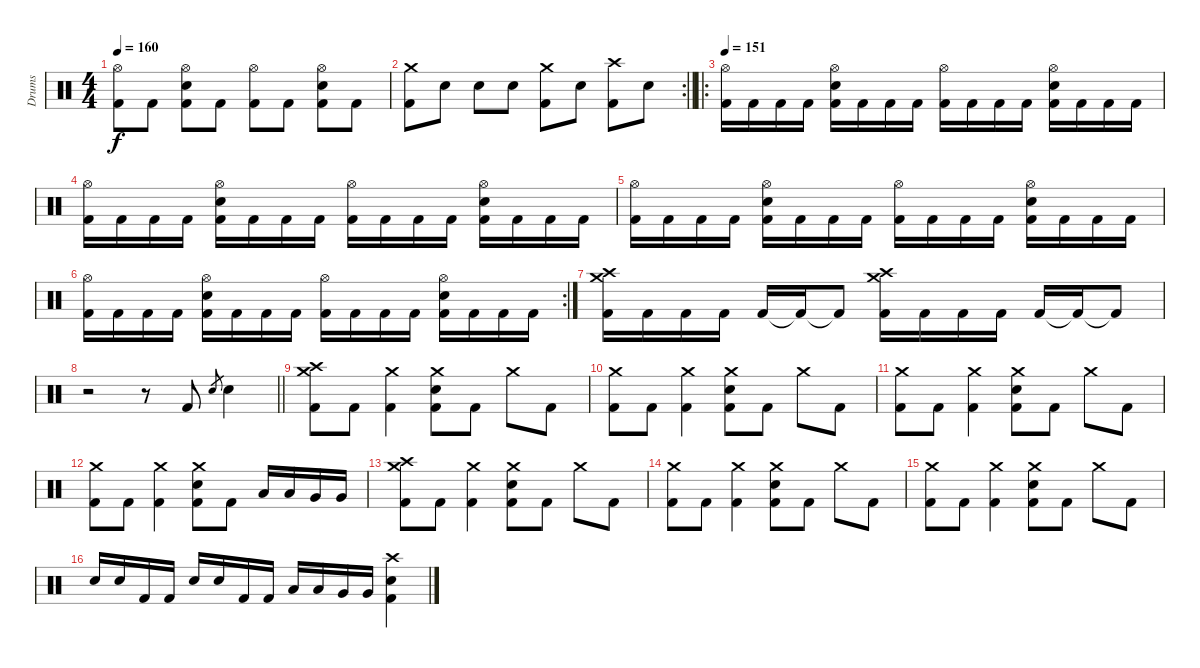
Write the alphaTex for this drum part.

\track ("Drums" "Drums") {instrument percussion}
\staff {score}
\articulation defaults
\ts (4 4)
\tempo 160
\clef neutral
\ks c
("Hi-Hat (open)" "Kick (hit) 2").8{dy f} "Kick (hit) 2".8 ("Hi-Hat (open)" "Electric Snare (hit)" "Kick (hit) 2").8 "Kick (hit) 2".8 ("Hi-Hat (open)" "Kick (hit) 2").8 "Kick (hit) 2".8 ("Hi-Hat (open)" "Electric Snare (hit)" "Kick (hit) 2").8 "Kick (hit) 2".8 |
\rc 2
\barLineRight lightlight
("Crash medium (hit)" "Kick (hit) 2").8 "Electric Snare (hit)".8 "Electric Snare (hit)".8 "Electric Snare (hit)".8 ("Crash medium (hit)" "Kick (hit) 2").8 "Electric Snare (hit)".8 ("Crash high (hit)" "Kick (hit) 2").8 "Electric Snare (hit)".8 |
\ro
\tempo 151
("Hi-Hat (open)" "Kick (hit) 2").16 "Kick (hit) 2".16 "Kick (hit) 2".16 "Kick (hit) 2".16 ("Hi-Hat (open)" "Electric Snare (hit)" "Kick (hit) 2").16 "Kick (hit) 2".16 "Kick (hit) 2".16 "Kick (hit) 2".16 ("Hi-Hat (open)" "Kick (hit) 2").16 "Kick (hit) 2".16 "Kick (hit) 2".16 "Kick (hit) 2".16 ("Hi-Hat (open)" "Electric Snare (hit)" "Kick (hit) 2").16 "Kick (hit) 2".16 "Kick (hit) 2".16 "Kick (hit) 2".16 |
("Hi-Hat (open)" "Kick (hit) 2").16 "Kick (hit) 2".16 "Kick (hit) 2".16 "Kick (hit) 2".16 ("Hi-Hat (open)" "Electric Snare (hit)" "Kick (hit) 2").16 "Kick (hit) 2".16 "Kick (hit) 2".16 "Kick (hit) 2".16 ("Hi-Hat (open)" "Kick (hit) 2").16 "Kick (hit) 2".16 "Kick (hit) 2".16 "Kick (hit) 2".16 ("Hi-Hat (open)" "Electric Snare (hit)" "Kick (hit) 2").16 "Kick (hit) 2".16 "Kick (hit) 2".16 "Kick (hit) 2".16 |
("Hi-Hat (open)" "Kick (hit) 2").16 "Kick (hit) 2".16 "Kick (hit) 2".16 "Kick (hit) 2".16 ("Hi-Hat (open)" "Electric Snare (hit)" "Kick (hit) 2").16 "Kick (hit) 2".16 "Kick (hit) 2".16 "Kick (hit) 2".16 ("Hi-Hat (open)" "Kick (hit) 2").16 "Kick (hit) 2".16 "Kick (hit) 2".16 "Kick (hit) 2".16 ("Hi-Hat (open)" "Electric Snare (hit)" "Kick (hit) 2").16 "Kick (hit) 2".16 "Kick (hit) 2".16 "Kick (hit) 2".16 |
\rc 2
("Hi-Hat (open)" "Kick (hit) 2").16 "Kick (hit) 2".16 "Kick (hit) 2".16 "Kick (hit) 2".16 ("Hi-Hat (open)" "Electric Snare (hit)" "Kick (hit) 2").16 "Kick (hit) 2".16 "Kick (hit) 2".16 "Kick (hit) 2".16 ("Hi-Hat (open)" "Kick (hit) 2").16 "Kick (hit) 2".16 "Kick (hit) 2".16 "Kick (hit) 2".16 ("Hi-Hat (open)" "Electric Snare (hit)" "Kick (hit) 2").16 "Kick (hit) 2".16 "Kick (hit) 2".16 "Kick (hit) 2".16 |
("Crash medium (hit)" "Crash high (hit)" "Kick (hit) 2").16 "Kick (hit) 2".16 "Kick (hit) 2".16 "Kick (hit) 2".16 "Kick (hit) 2".16 "Kick (hit) 2"{t}.16 "Kick (hit) 2"{t}.8 ("Crash medium (hit)" "Crash high (hit)" "Kick (hit) 2").16 "Kick (hit) 2".16 "Kick (hit) 2".16 "Kick (hit) 2".16 "Kick (hit) 2".16 "Kick (hit) 2"{t}.16 "Kick (hit) 2"{t}.8 |
\barLineRight lightlight
r.2 r.8 "Kick (hit) 2".8 "Electric Snare (hit)".8{gr} "Electric Snare (hit)".4 |
("Crash medium (hit)" "Crash high (hit)" "Kick (hit) 2").8 "Kick (hit) 2".8 ("Crash medium (hit)" "Kick (hit) 2").4 ("Crash medium (hit)" "Electric Snare (hit)" "Kick (hit) 2").8 "Kick (hit) 2".8 "Crash medium (hit)".8 "Kick (hit) 2".8 |
("Crash medium (hit)" "Kick (hit) 2").8 "Kick (hit) 2".8 ("Crash medium (hit)" "Kick (hit) 2").4 ("Crash medium (hit)" "Electric Snare (hit)" "Kick (hit) 2").8 "Kick (hit) 2".8 "Crash medium (hit)".8 "Kick (hit) 2".8 |
("Crash medium (hit)" "Kick (hit) 2").8 "Kick (hit) 2".8 ("Crash medium (hit)" "Kick (hit) 2").4 ("Crash medium (hit)" "Electric Snare (hit)" "Kick (hit) 2").8 "Kick (hit) 2".8 "Crash medium (hit)".8 "Kick (hit) 2".8 |
("Crash medium (hit)" "Kick (hit) 2").8 "Kick (hit) 2".8 ("Crash medium (hit)" "Kick (hit) 2").4 ("Crash medium (hit)" "Electric Snare (hit)" "Kick (hit) 2").8 "Kick (hit) 2".8 "Low Tom (hit)".16 "Low Tom (hit)".16 "Very Low Tom (hit)".16 "Very Low Tom (hit)".16 |
("Crash medium (hit)" "Crash high (hit)" "Kick (hit) 2").8 "Kick (hit) 2".8 ("Crash medium (hit)" "Kick (hit) 2").4 ("Crash medium (hit)" "Electric Snare (hit)" "Kick (hit) 2").8 "Kick (hit) 2".8 "Crash medium (hit)".8 "Kick (hit) 2".8 |
("Crash medium (hit)" "Kick (hit) 2").8 "Kick (hit) 2".8 ("Crash medium (hit)" "Kick (hit) 2").4 ("Crash medium (hit)" "Electric Snare (hit)" "Kick (hit) 2").8 "Kick (hit) 2".8 "Crash medium (hit)".8 "Kick (hit) 2".8 |
("Crash medium (hit)" "Kick (hit) 2").8 "Kick (hit) 2".8 ("Crash medium (hit)" "Kick (hit) 2").4 ("Crash medium (hit)" "Electric Snare (hit)" "Kick (hit) 2").8 "Kick (hit) 2".8 "Crash medium (hit)".8 "Kick (hit) 2".8 |
"Electric Snare (hit)".16 "Electric Snare (hit)".16 "Kick (hit) 2".16 "Kick (hit) 2".16 "Electric Snare (hit)".16 "Electric Snare (hit)".16 "Kick (hit) 2".16 "Kick (hit) 2".16 "Low Tom (hit)".16 "Low Tom (hit)".16 "Very Low Tom (hit)".16 "Very Low Tom (hit)".16 ("Crash high (hit)" "Electric Snare (hit)" "Kick (hit) 2").4
